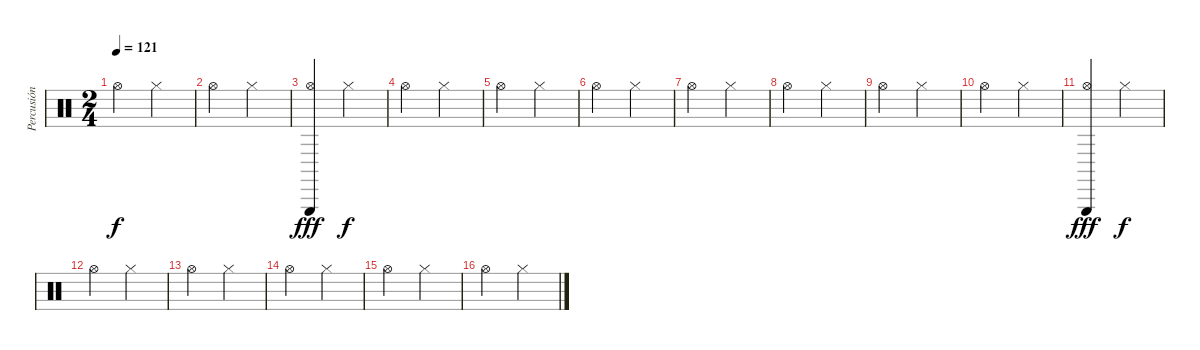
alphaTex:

\track ("Percusión" "Percusión") {instrument percussion}
\staff {score}
\articulation defaults
\ts (2 4)
\tempo 121
\clef neutral
\ks c "Hi-Hat (open)".4{dy f} "Hi-Hat (closed)".4
|
"Hi-Hat (open)".4 "Hi-Hat (closed)".4 |
("Hi-Hat (open)" "Triangle (hit)").4{dy fff} "Hi-Hat (closed)".4{dy f} |
"Hi-Hat (open)".4 "Hi-Hat (closed)".4 |
"Hi-Hat (open)".4 "Hi-Hat (closed)".4 |
"Hi-Hat (open)".4 "Hi-Hat (closed)".4 |
"Hi-Hat (open)".4 "Hi-Hat (closed)".4 |
"Hi-Hat (open)".4 "Hi-Hat (closed)".4 |
"Hi-Hat (open)".4 "Hi-Hat (closed)".4 |
"Hi-Hat (open)".4 "Hi-Hat (closed)".4 |
("Hi-Hat (open)" "Triangle (hit)").4{dy fff} "Hi-Hat (closed)".4{dy f} |
"Hi-Hat (open)".4 "Hi-Hat (closed)".4 |
"Hi-Hat (open)".4 "Hi-Hat (closed)".4 |
"Hi-Hat (open)".4 "Hi-Hat (closed)".4 |
"Hi-Hat (open)".4 "Hi-Hat (closed)".4 |
"Hi-Hat (open)".4 "Hi-Hat (closed)".4
